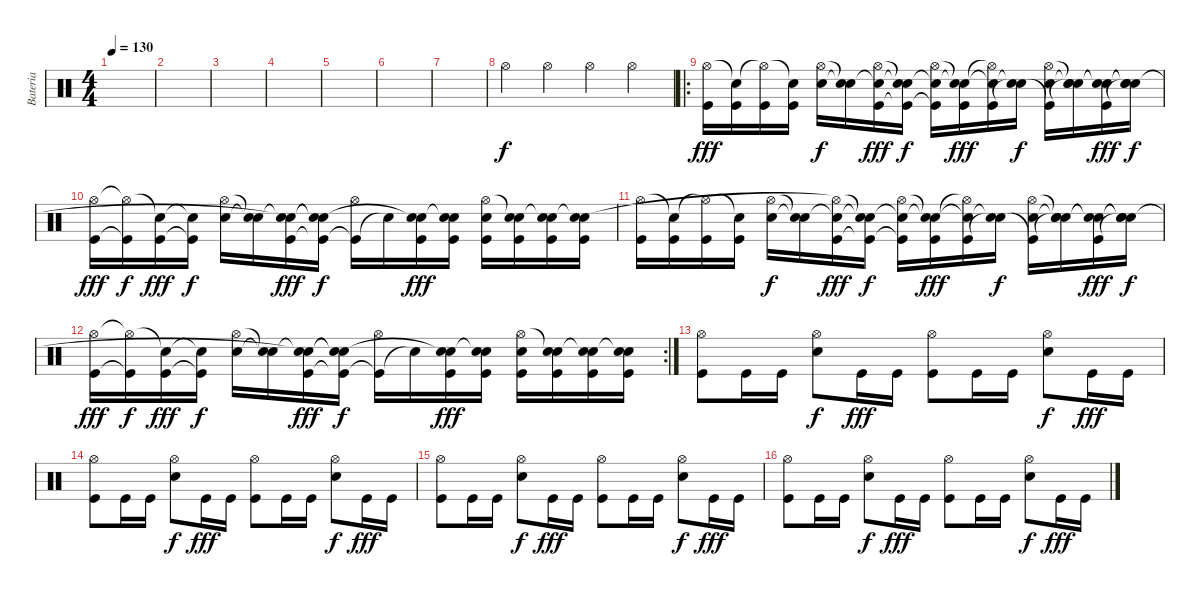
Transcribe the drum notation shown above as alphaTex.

\track ("Bateria" "Bateria") {instrument percussion}
\staff {score}
\articulation defaults
\ts (4 4)
\tempo 130
\clef neutral
\ks c
|
|
|
|
|
|
|
"Hi-Hat (open)".4 "Hi-Hat (open)".4 "Hi-Hat (open)".4 "Hi-Hat (open)".4 |
\ro
("Kick (hit)" "Hi-Hat (open)").16{dy fff} ("Kick (hit)" "Snare (hit)"{t}).16 ("Kick (hit)" "Hi-Hat (open)"{t}).16 ("Kick (hit)" "Snare (hit)"{t}).16 ("Electric Snare (hit)" "Hi-Hat (open)").16{dy f} ("Snare (hit)"{t} "Snare (hit)"{t}).16 ("Kick (hit)" "Snare (hit)"{t} "Hi-Hat (open)").16{dy fff} ("Kick (hit)"{t} "Snare (hit)"{t} "Snare (hit)"{t}).16{dy f} ("Kick (hit)"{t} "Snare (hit)"{t} "Hi-Hat (open)").16 ("Kick (hit)" "Snare (hit)"{t} "Snare (hit)"{t}).16{dy fff} ("Kick (hit)" "Electric Snare (hit)"{t} "Hi-Hat (open)"{t}).16 ("Snare (hit)"{t} "Snare (hit)"{t}).16{dy f} ("Kick (hit)"{t} "Electric Snare (hit)" "Hi-Hat (open)").16 ("Snare (hit)"{t} "Snare (hit)"{t} "Snare (hit)"{t}).16 ("Kick (hit)" "Snare (hit)"{t} "Snare (hit)"{t}).16{dy fff} ("Snare (hit)"{t} "Snare (hit)"{t} "Snare (hit)"{t}).16{dy f} |
("Kick (hit)" "Hi-Hat (open)").16{dy fff} ("Kick (hit)"{t} "Hi-Hat (open)"{t}).16{dy f} ("Kick (hit)" "Snare (hit)"{t}).16{dy fff} ("Kick (hit)"{t} "Snare (hit)"{t}).16{dy f} ("Electric Snare (hit)" "Hi-Hat (open)").16 ("Snare (hit)"{t} "Snare (hit)"{t}).16 ("Kick (hit)" "Snare (hit)"{t} "Snare (hit)"{t}).16{dy fff} ("Kick (hit)"{t} "Snare (hit)"{t} "Snare (hit)"{t}).16{dy f} ("Kick (hit)"{t} "Hi-Hat (open)").16 "Snare (hit)"{t}.16 ("Kick (hit)" "Electric Snare (hit)" "Snare (hit)"{t}).16{dy fff} ("Kick (hit)" "Electric Snare (hit)" "Snare (hit)"{t}).16 ("Kick (hit)" "Electric Snare (hit)" "Hi-Hat (open)").16 ("Kick (hit)" "Electric Snare (hit)" "Snare (hit)"{t}).16 ("Kick (hit)" "Electric Snare (hit)" "Snare (hit)"{t}).16 ("Kick (hit)" "Electric Snare (hit)" "Snare (hit)"{t}).16 |
("Kick (hit)" "Hi-Hat (open)").16 ("Kick (hit)" "Snare (hit)"{t}).16 ("Kick (hit)" "Hi-Hat (open)"{t}).16 ("Kick (hit)" "Snare (hit)"{t}).16 ("Electric Snare (hit)" "Hi-Hat (open)").16{dy f} ("Snare (hit)"{t} "Snare (hit)"{t}).16 ("Kick (hit)" "Snare (hit)"{t} "Hi-Hat (open)"{t}).16{dy fff} ("Kick (hit)"{t} "Snare (hit)"{t} "Snare (hit)"{t}).16{dy f} ("Kick (hit)"{t} "Snare (hit)"{t} "Hi-Hat (open)").16 ("Kick (hit)" "Snare (hit)"{t} "Snare (hit)"{t}).16{dy fff} ("Kick (hit)" "Electric Snare (hit)"{t} "Hi-Hat (open)"{t}).16 ("Snare (hit)"{t} "Snare (hit)"{t}).16{dy f} ("Kick (hit)"{t} "Electric Snare (hit)" "Hi-Hat (open)").16 ("Snare (hit)"{t} "Snare (hit)"{t} "Snare (hit)"{t}).16 ("Kick (hit)" "Snare (hit)"{t} "Snare (hit)"{t}).16{dy fff} ("Snare (hit)"{t} "Snare (hit)"{t} "Snare (hit)"{t}).16{dy f} |
\rc 2
("Kick (hit)" "Hi-Hat (open)").16{dy fff} ("Kick (hit)"{t} "Hi-Hat (open)"{t}).16{dy f} ("Kick (hit)" "Snare (hit)"{t}).16{dy fff} ("Kick (hit)"{t} "Snare (hit)"{t}).16{dy f} ("Electric Snare (hit)" "Hi-Hat (open)").16 ("Snare (hit)"{t} "Snare (hit)"{t}).16 ("Kick (hit)" "Snare (hit)"{t} "Snare (hit)"{t}).16{dy fff} ("Kick (hit)"{t} "Snare (hit)"{t} "Snare (hit)"{t}).16{dy f} ("Kick (hit)"{t} "Hi-Hat (open)").16 "Snare (hit)"{t}.16 ("Kick (hit)" "Electric Snare (hit)" "Snare (hit)"{t}).16{dy fff} ("Kick (hit)" "Electric Snare (hit)" "Snare (hit)"{t}).16 ("Kick (hit)" "Electric Snare (hit)" "Hi-Hat (open)").16 ("Kick (hit)" "Electric Snare (hit)" "Snare (hit)"{t}).16 ("Kick (hit)" "Electric Snare (hit)" "Snare (hit)"{t}).16 ("Kick (hit)" "Electric Snare (hit)" "Snare (hit)"{t}).16 |
("Kick (hit)" "Hi-Hat (open)").8 "Kick (hit)".16 "Kick (hit)".16 ("Electric Snare (hit)" "Hi-Hat (open)").8{dy f} "Kick (hit)".16{dy fff} "Kick (hit)".16 ("Kick (hit)" "Hi-Hat (open)").8 "Kick (hit)".16 "Kick (hit)".16 ("Electric Snare (hit)" "Hi-Hat (open)").8{dy f} "Kick (hit)".16{dy fff} "Kick (hit)".16 |
("Kick (hit)" "Hi-Hat (open)").8 "Kick (hit)".16 "Kick (hit)".16 ("Electric Snare (hit)" "Hi-Hat (open)").8{dy f} "Kick (hit)".16{dy fff} "Kick (hit)".16 ("Kick (hit)" "Hi-Hat (open)").8 "Kick (hit)".16 "Kick (hit)".16 ("Electric Snare (hit)" "Hi-Hat (open)").8{dy f} "Kick (hit)".16{dy fff} "Kick (hit)".16 |
("Kick (hit)" "Hi-Hat (open)").8 "Kick (hit)".16 "Kick (hit)".16 ("Electric Snare (hit)" "Hi-Hat (open)").8{dy f} "Kick (hit)".16{dy fff} "Kick (hit)".16 ("Kick (hit)" "Hi-Hat (open)").8 "Kick (hit)".16 "Kick (hit)".16 ("Electric Snare (hit)" "Hi-Hat (open)").8{dy f} "Kick (hit)".16{dy fff} "Kick (hit)".16 |
("Kick (hit)" "Hi-Hat (open)").8 "Kick (hit)".16 "Kick (hit)".16 ("Electric Snare (hit)" "Hi-Hat (open)").8{dy f} "Kick (hit)".16{dy fff} "Kick (hit)".16 ("Kick (hit)" "Hi-Hat (open)").8 "Kick (hit)".16 "Kick (hit)".16 ("Electric Snare (hit)" "Hi-Hat (open)").8{dy f} "Kick (hit)".16{dy fff} "Kick (hit)".16
